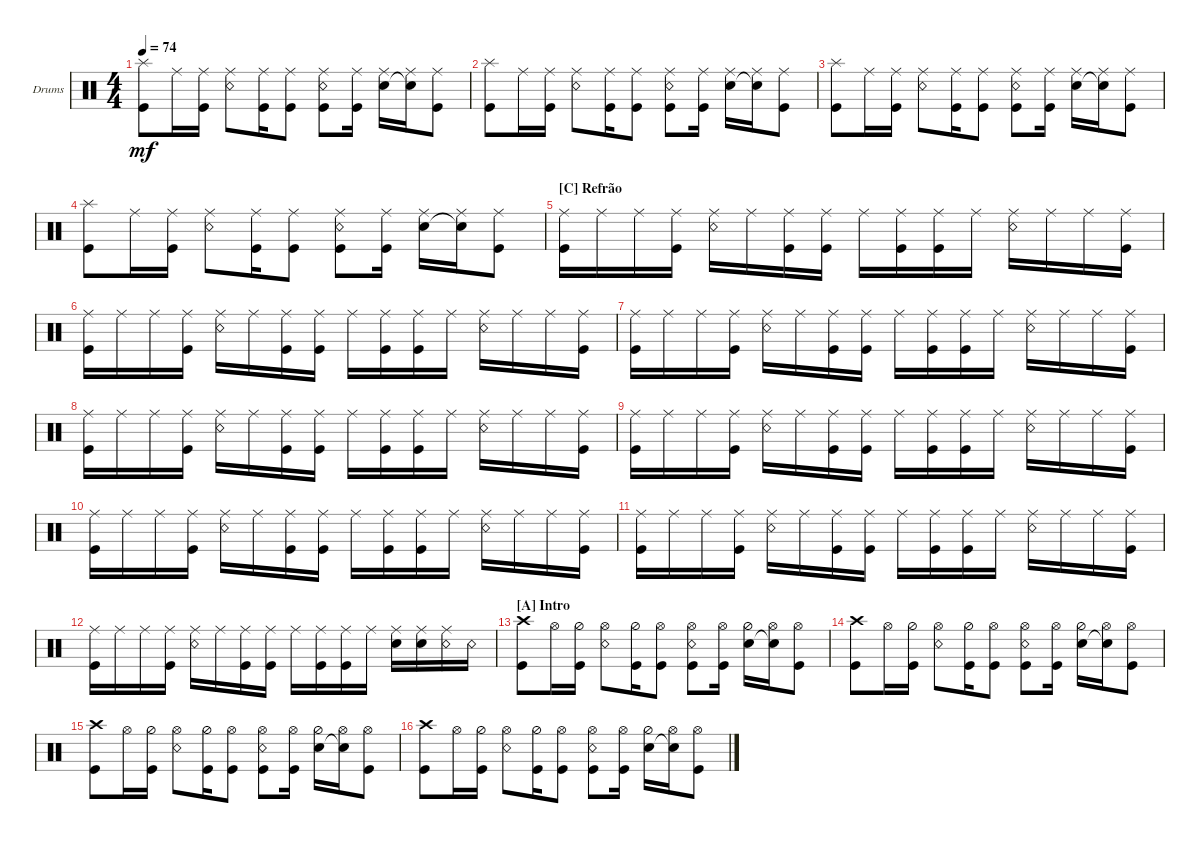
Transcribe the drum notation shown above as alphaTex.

\defaultSystemsLayout 4
\bracketExtendMode groupsimilarinstruments
\firstSystemTrackNameOrientation horizontal
\otherSystemsTrackNameOrientation horizontal
\track ("Drum" "Drums") {multiBarRest instrument percussion}
\staff {score}
\articulation defaults
\ts (4 4)
\tempo 74
\clef neutral
\ks c
("Kick (hit)" "Splash (hit)").8{dy mf} "Ride (middle)".16 ("Kick (hit)" "Ride (middle)").16 ("Snare (rim shot)" "Ride (middle)").8 ("Kick (hit)" "Ride (middle)").16 ("Kick (hit)" "Ride (middle)").8 ("Kick (hit)" "Snare (rim shot)" "Ride (middle)").8 ("Kick (hit)" "Ride (middle)").16 ("Snare (hit) 2" "Ride (middle)").16 ("Snare (hit) 2"{t} "Ride (middle)").16 ("Kick (hit)" "Ride (middle)").8 |
("Kick (hit)" "Splash (hit)").8 "Ride (middle)".16 ("Kick (hit)" "Ride (middle)").16 ("Snare (rim shot)" "Ride (middle)").8 ("Kick (hit)" "Ride (middle)").16 ("Kick (hit)" "Ride (middle)").8 ("Kick (hit)" "Snare (rim shot)" "Ride (middle)").8 ("Kick (hit)" "Ride (middle)").16 ("Snare (hit) 2" "Ride (middle)").16 ("Snare (hit) 2"{t} "Ride (middle)").16 ("Kick (hit)" "Ride (middle)").8 |
("Kick (hit)" "Splash (hit)").8 "Ride (middle)".16 ("Kick (hit)" "Ride (middle)").16 ("Snare (rim shot)" "Ride (middle)").8 ("Kick (hit)" "Ride (middle)").16 ("Kick (hit)" "Ride (middle)").8 ("Kick (hit)" "Snare (rim shot)" "Ride (middle)").8 ("Kick (hit)" "Ride (middle)").16 ("Snare (hit) 2" "Ride (middle)").16 ("Snare (hit) 2"{t} "Ride (middle)").16 ("Kick (hit)" "Ride (middle)").8 |
("Kick (hit)" "Splash (hit)").8 "Ride (middle)".16 ("Kick (hit)" "Ride (middle)").16 ("Snare (rim shot)" "Ride (middle)").8 ("Kick (hit)" "Ride (middle)").16 ("Kick (hit)" "Ride (middle)").8 ("Kick (hit)" "Snare (rim shot)" "Ride (middle)").8 ("Kick (hit)" "Ride (middle)").16 ("Snare (hit) 2" "Ride (middle)").16 ("Snare (hit) 2"{t} "Ride (middle)").16 ("Kick (hit)" "Ride (middle)").8 |
\section ("C" "Refrão")
("Ride (middle)" "Kick (hit)").16 "Ride (middle)".16 "Ride (middle)".16 ("Ride (middle)" "Kick (hit)").16 ("Ride (middle)" "Snare (rim shot)").16 "Ride (middle)".16 ("Ride (middle)" "Kick (hit)").16 ("Ride (middle)" "Kick (hit)").16 "Ride (middle)".16 ("Ride (middle)" "Kick (hit)").16 ("Ride (middle)" "Kick (hit)").16 "Ride (middle)".16 ("Ride (middle)" "Snare (rim shot)").16 "Ride (middle)".16 "Ride (middle)".16 ("Ride (middle)" "Kick (hit)").16 |
("Ride (middle)" "Kick (hit)").16 "Ride (middle)".16 "Ride (middle)".16 ("Ride (middle)" "Kick (hit)").16 ("Ride (middle)" "Snare (rim shot)").16 "Ride (middle)".16 ("Ride (middle)" "Kick (hit)").16 ("Ride (middle)" "Kick (hit)").16 "Ride (middle)".16 ("Ride (middle)" "Kick (hit)").16 ("Ride (middle)" "Kick (hit)").16 "Ride (middle)".16 ("Ride (middle)" "Snare (rim shot)").16 "Ride (middle)".16 "Ride (middle)".16 ("Ride (middle)" "Kick (hit)").16 |
("Ride (middle)" "Kick (hit)").16 "Ride (middle)".16 "Ride (middle)".16 ("Ride (middle)" "Kick (hit)").16 ("Ride (middle)" "Snare (rim shot)").16 "Ride (middle)".16 ("Ride (middle)" "Kick (hit)").16 ("Ride (middle)" "Kick (hit)").16 "Ride (middle)".16 ("Ride (middle)" "Kick (hit)").16 ("Ride (middle)" "Kick (hit)").16 "Ride (middle)".16 ("Ride (middle)" "Snare (rim shot)").16 "Ride (middle)".16 "Ride (middle)".16 ("Ride (middle)" "Kick (hit)").16 |
("Ride (middle)" "Kick (hit)").16 "Ride (middle)".16 "Ride (middle)".16 ("Ride (middle)" "Kick (hit)").16 ("Ride (middle)" "Snare (rim shot)").16 "Ride (middle)".16 ("Ride (middle)" "Kick (hit)").16 ("Ride (middle)" "Kick (hit)").16 "Ride (middle)".16 ("Ride (middle)" "Kick (hit)").16 ("Ride (middle)" "Kick (hit)").16 "Ride (middle)".16 ("Ride (middle)" "Snare (rim shot)").16 "Ride (middle)".16 "Ride (middle)".16 ("Ride (middle)" "Kick (hit)").16 |
("Ride (middle)" "Kick (hit)").16 "Ride (middle)".16 "Ride (middle)".16 ("Ride (middle)" "Kick (hit)").16 ("Ride (middle)" "Snare (rim shot)").16 "Ride (middle)".16 ("Ride (middle)" "Kick (hit)").16 ("Ride (middle)" "Kick (hit)").16 "Ride (middle)".16 ("Ride (middle)" "Kick (hit)").16 ("Ride (middle)" "Kick (hit)").16 "Ride (middle)".16 ("Ride (middle)" "Snare (rim shot)").16 "Ride (middle)".16 "Ride (middle)".16 ("Ride (middle)" "Kick (hit)").16 |
("Ride (middle)" "Kick (hit)").16 "Ride (middle)".16 "Ride (middle)".16 ("Ride (middle)" "Kick (hit)").16 ("Ride (middle)" "Snare (rim shot)").16 "Ride (middle)".16 ("Ride (middle)" "Kick (hit)").16 ("Ride (middle)" "Kick (hit)").16 "Ride (middle)".16 ("Ride (middle)" "Kick (hit)").16 ("Ride (middle)" "Kick (hit)").16 "Ride (middle)".16 ("Ride (middle)" "Snare (rim shot)").16 "Ride (middle)".16 "Ride (middle)".16 ("Ride (middle)" "Kick (hit)").16 |
("Ride (middle)" "Kick (hit)").16 "Ride (middle)".16 "Ride (middle)".16 ("Ride (middle)" "Kick (hit)").16 ("Ride (middle)" "Snare (rim shot)").16 "Ride (middle)".16 ("Ride (middle)" "Kick (hit)").16 ("Ride (middle)" "Kick (hit)").16 "Ride (middle)".16 ("Ride (middle)" "Kick (hit)").16 ("Ride (middle)" "Kick (hit)").16 "Ride (middle)".16 ("Ride (middle)" "Snare (rim shot)").16 "Ride (middle)".16 "Ride (middle)".16 ("Ride (middle)" "Kick (hit)").16 |
("Ride (middle)" "Kick (hit)").16 "Ride (middle)".16 "Ride (middle)".16 ("Ride (middle)" "Kick (hit)").16 ("Ride (middle)" "Snare (rim shot)").16 "Ride (middle)".16 ("Ride (middle)" "Kick (hit)").16 ("Ride (middle)" "Kick (hit)").16 "Ride (middle)".16 ("Ride (middle)" "Kick (hit)").16 ("Ride (middle)" "Kick (hit)").16 "Ride (middle)".16 ("Snare (hit) 2" "Ride (middle)").16 ("Snare (hit) 2" "Ride (middle)").16 ("Ride (middle)" "Snare (rim shot)").16 "Snare (rim shot)".16 |
\section ("A" "Intro")
("Kick (hit)" "Crash high (hit)").8 "Hi-Hat (open)".16 ("Kick (hit)" "Hi-Hat (half)").16 ("Snare (rim shot)" "Hi-Hat (open)").8 ("Kick (hit)" "Hi-Hat (half)").16 ("Kick (hit)" "Hi-Hat (open)").8 ("Kick (hit)" "Snare (rim shot)" "Hi-Hat (open)").8 ("Kick (hit)" "Hi-Hat (open)").16 ("Snare (hit) 2" "Hi-Hat (half)").16 ("Snare (hit) 2"{t} "Hi-Hat (open)").16 ("Kick (hit)" "Hi-Hat (open)").8 |
("Kick (hit)" "Crash high (hit)").8 "Hi-Hat (open)".16 ("Kick (hit)" "Hi-Hat (half)").16 ("Snare (rim shot)" "Hi-Hat (open)").8 ("Kick (hit)" "Hi-Hat (half)").16 ("Kick (hit)" "Hi-Hat (open)").8 ("Kick (hit)" "Snare (rim shot)" "Hi-Hat (open)").8 ("Kick (hit)" "Hi-Hat (open)").16 ("Snare (hit) 2" "Hi-Hat (half)").16 ("Snare (hit) 2"{t} "Hi-Hat (open)").16 ("Kick (hit)" "Hi-Hat (open)").8 |
("Kick (hit)" "Crash high (hit)").8 "Hi-Hat (open)".16 ("Kick (hit)" "Hi-Hat (half)").16 ("Snare (rim shot)" "Hi-Hat (open)").8 ("Kick (hit)" "Hi-Hat (half)").16 ("Kick (hit)" "Hi-Hat (open)").8 ("Kick (hit)" "Snare (rim shot)" "Hi-Hat (open)").8 ("Kick (hit)" "Hi-Hat (open)").16 ("Snare (hit) 2" "Hi-Hat (half)").16 ("Snare (hit) 2"{t} "Hi-Hat (open)").16 ("Kick (hit)" "Hi-Hat (open)").8 |
("Kick (hit)" "Crash high (hit)").8 "Hi-Hat (open)".16 ("Kick (hit)" "Hi-Hat (half)").16 ("Snare (rim shot)" "Hi-Hat (open)").8 ("Kick (hit)" "Hi-Hat (half)").16 ("Kick (hit)" "Hi-Hat (open)").8 ("Kick (hit)" "Snare (rim shot)" "Hi-Hat (open)").8 ("Kick (hit)" "Hi-Hat (open)").16 ("Snare (hit) 2" "Hi-Hat (half)").16 ("Snare (hit) 2"{t} "Hi-Hat (open)").16 ("Kick (hit)" "Hi-Hat (open)").8
